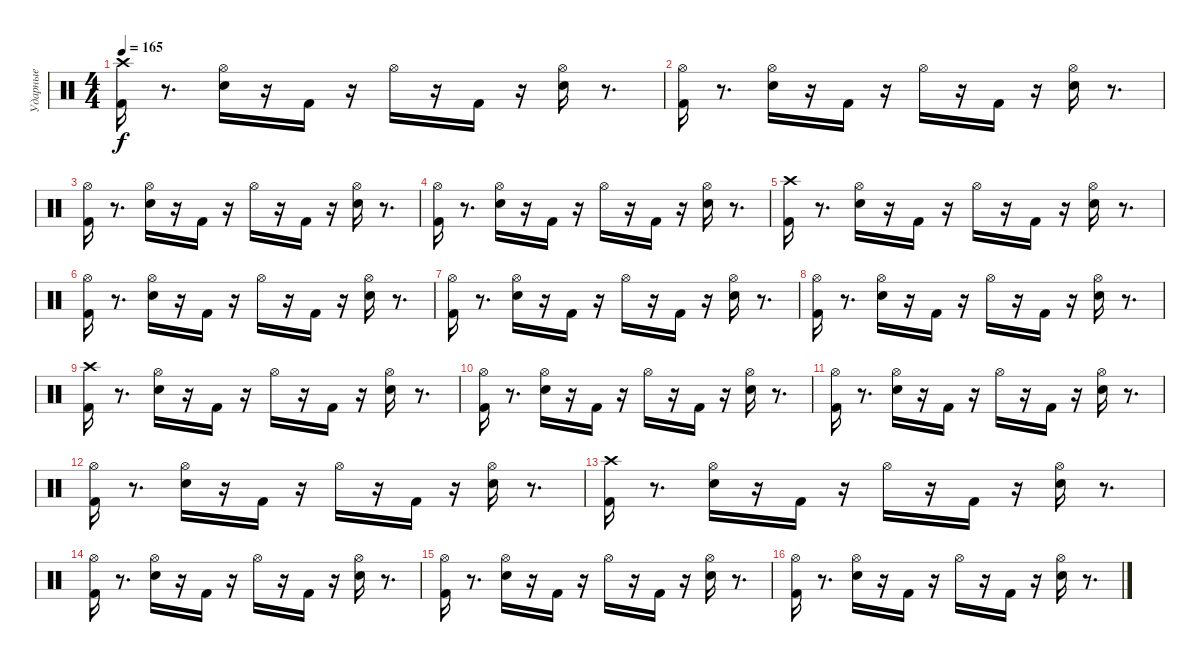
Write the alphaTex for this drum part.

\track ("Ударные" "Ударные") {instrument percussion}
\staff {score}
\articulation defaults
\ts (4 4)
\tempo 165
\clef neutral
\ks c
("Crash high (hit)" "Kick (hit) 2").16{dy f} r.8{d} ("Hi-Hat (open)" "Electric Snare (hit)").16 r.16 "Kick (hit) 2".16 r.16 "Hi-Hat (open)".16 r.16 "Kick (hit) 2".16 r.16 ("Hi-Hat (open)" "Electric Snare (hit)").16 r.8{d} |
("Hi-Hat (open)" "Kick (hit) 2").16 r.8{d} ("Hi-Hat (open)" "Electric Snare (hit)").16 r.16 "Kick (hit) 2".16 r.16 "Hi-Hat (open)".16 r.16 "Kick (hit) 2".16 r.16 ("Hi-Hat (open)" "Electric Snare (hit)").16 r.8{d} |
("Hi-Hat (open)" "Kick (hit) 2").16 r.8{d} ("Electric Snare (hit)" "Hi-Hat (open)").16 r.16 "Kick (hit) 2".16 r.16 "Hi-Hat (open)".16 r.16 "Kick (hit) 2".16 r.16 ("Hi-Hat (open)" "Electric Snare (hit)").16 r.8{d} |
("Hi-Hat (open)" "Kick (hit) 2").16 r.8{d} ("Electric Snare (hit)" "Hi-Hat (open)").16 r.16 "Kick (hit) 2".16 r.16 "Hi-Hat (open)".16 r.16 "Kick (hit) 2".16 r.16 ("Hi-Hat (open)" "Electric Snare (hit)").16 r.8{d} |
("Crash high (hit)" "Kick (hit) 2").16 r.8{d} ("Hi-Hat (open)" "Electric Snare (hit)").16 r.16 "Kick (hit) 2".16 r.16 "Hi-Hat (open)".16 r.16 "Kick (hit) 2".16 r.16 ("Hi-Hat (open)" "Electric Snare (hit)").16 r.8{d} |
("Hi-Hat (open)" "Kick (hit) 2").16 r.8{d} ("Hi-Hat (open)" "Electric Snare (hit)").16 r.16 "Kick (hit) 2".16 r.16 "Hi-Hat (open)".16 r.16 "Kick (hit) 2".16 r.16 ("Hi-Hat (open)" "Electric Snare (hit)").16 r.8{d} |
("Hi-Hat (open)" "Kick (hit) 2").16 r.8{d} ("Electric Snare (hit)" "Hi-Hat (open)").16 r.16 "Kick (hit) 2".16 r.16 "Hi-Hat (open)".16 r.16 "Kick (hit) 2".16 r.16 ("Hi-Hat (open)" "Electric Snare (hit)").16 r.8{d} |
("Hi-Hat (open)" "Kick (hit) 2").16 r.8{d} ("Electric Snare (hit)" "Hi-Hat (open)").16 r.16 "Kick (hit) 2".16 r.16 "Hi-Hat (open)".16 r.16 "Kick (hit) 2".16 r.16 ("Hi-Hat (open)" "Electric Snare (hit)").16 r.8{d} |
("Kick (hit) 2" "Crash high (hit)").16 r.8{d} ("Hi-Hat (open)" "Electric Snare (hit)").16 r.16 "Kick (hit) 2".16 r.16 "Hi-Hat (open)".16 r.16 "Kick (hit) 2".16 r.16 ("Electric Snare (hit)" "Hi-Hat (open)").16 r.8{d} |
("Kick (hit) 2" "Hi-Hat (open)").16 r.8{d} ("Hi-Hat (open)" "Electric Snare (hit)").16 r.16 "Kick (hit) 2".16 r.16 "Hi-Hat (open)".16 r.16 "Kick (hit) 2".16 r.16 ("Electric Snare (hit)" "Hi-Hat (open)").16 r.8{d} |
("Kick (hit) 2" "Hi-Hat (open)").16 r.8{d} ("Electric Snare (hit)" "Hi-Hat (open)").16 r.16 "Kick (hit) 2".16 r.16 "Hi-Hat (open)".16 r.16 "Kick (hit) 2".16 r.16 ("Electric Snare (hit)" "Hi-Hat (open)").16 r.8{d} |
("Kick (hit) 2" "Hi-Hat (open)").16 r.8{d} ("Electric Snare (hit)" "Hi-Hat (open)").16 r.16 "Kick (hit) 2".16 r.16 "Hi-Hat (open)".16 r.16 "Kick (hit) 2".16 r.16 ("Electric Snare (hit)" "Hi-Hat (open)").16 r.8{d} |
("Kick (hit) 2" "Crash high (hit)").16 r.8{d} ("Hi-Hat (open)" "Electric Snare (hit)").16 r.16 "Kick (hit) 2".16 r.16 "Hi-Hat (open)".16 r.16 "Kick (hit) 2".16 r.16 ("Electric Snare (hit)" "Hi-Hat (open)").16 r.8{d} |
("Kick (hit) 2" "Hi-Hat (open)").16 r.8{d} ("Hi-Hat (open)" "Electric Snare (hit)").16 r.16 "Kick (hit) 2".16 r.16 "Hi-Hat (open)".16 r.16 "Kick (hit) 2".16 r.16 ("Electric Snare (hit)" "Hi-Hat (open)").16 r.8{d} |
("Kick (hit) 2" "Hi-Hat (open)").16 r.8{d} ("Electric Snare (hit)" "Hi-Hat (open)").16 r.16 "Kick (hit) 2".16 r.16 "Hi-Hat (open)".16 r.16 "Kick (hit) 2".16 r.16 ("Electric Snare (hit)" "Hi-Hat (open)").16 r.8{d} |
("Kick (hit) 2" "Hi-Hat (open)").16 r.8{d} ("Electric Snare (hit)" "Hi-Hat (open)").16 r.16 "Kick (hit) 2".16 r.16 "Hi-Hat (open)".16 r.16 "Kick (hit) 2".16 r.16 ("Electric Snare (hit)" "Hi-Hat (open)").16 r.8{d}
